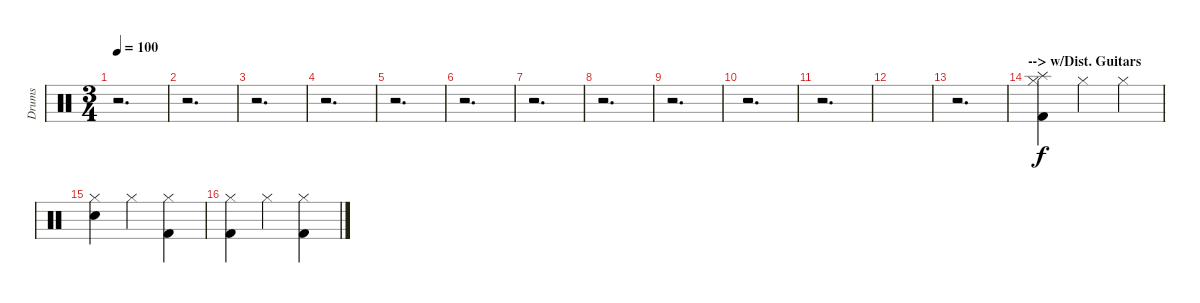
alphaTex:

\track ("Drums" "Drums") {instrument percussion}
\staff {score}
\articulation defaults
\ts (3 4)
\tempo 100
\clef neutral
\ks c
r.2{d dy f} |
r.2{d} |
r.2{d} |
r.2{d} |
r.2{d} |
r.2{d} |
r.2{d} |
r.2{d} |
r.2{d} |
r.2{d} |
r.2{d} |
|
r.2{d} |
\section ("" "--> w/Dist. Guitars")
("Hi-Hat (closed)" "Splash (hit)" "Kick (hit) 2").4 "Hi-Hat (closed)".4 "Hi-Hat (closed)".4 |
("Hi-Hat (closed)" "Electric Snare (hit)").4 "Hi-Hat (closed)".4 ("Hi-Hat (closed)" "Kick (hit) 2").4 |
("Hi-Hat (closed)" "Kick (hit) 2").4 "Hi-Hat (closed)".4 ("Hi-Hat (closed)" "Kick (hit) 2").4
